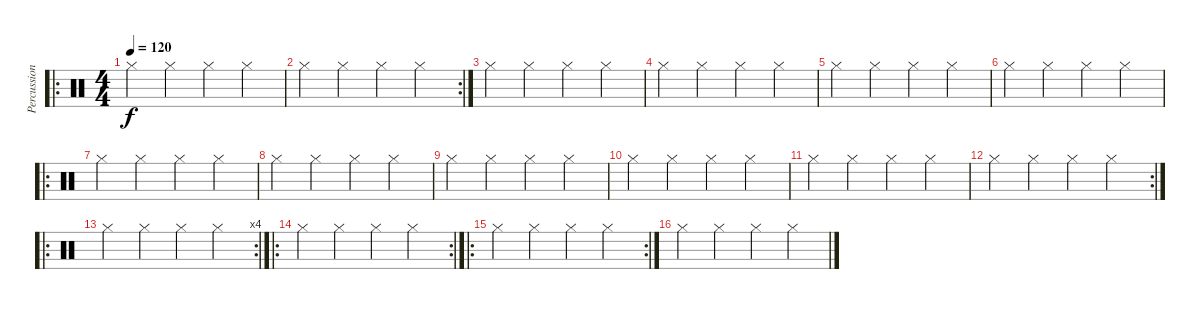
\track ("Percussioni" "Percussion") {instrument percussion}
\staff {score}
\articulation defaults
\ro
\ts (4 4)
\tempo 120
\clef neutral
\ks c "Hi-Hat (closed)".4{dy f} "Hi-Hat (closed)".4 "Hi-Hat (closed)".4 "Hi-Hat (closed)".4
|
\rc 2 "Hi-Hat (closed)".4 "Hi-Hat (closed)".4 "Hi-Hat (closed)".4 "Hi-Hat (closed)".4
|
"Hi-Hat (closed)".4 "Hi-Hat (closed)".4 "Hi-Hat (closed)".4 "Hi-Hat (closed)".4 |
"Hi-Hat (closed)".4 "Hi-Hat (closed)".4 "Hi-Hat (closed)".4 "Hi-Hat (closed)".4 |
"Hi-Hat (closed)".4 "Hi-Hat (closed)".4 "Hi-Hat (closed)".4 "Hi-Hat (closed)".4 |
"Hi-Hat (closed)".4 "Hi-Hat (closed)".4 "Hi-Hat (closed)".4 "Hi-Hat (closed)".4 |
\ro "Hi-Hat (closed)".4 "Hi-Hat (closed)".4 "Hi-Hat (closed)".4 "Hi-Hat (closed)".4
|
"Hi-Hat (closed)".4 "Hi-Hat (closed)".4 "Hi-Hat (closed)".4 "Hi-Hat (closed)".4 |
"Hi-Hat (closed)".4 "Hi-Hat (closed)".4 "Hi-Hat (closed)".4 "Hi-Hat (closed)".4 |
"Hi-Hat (closed)".4 "Hi-Hat (closed)".4 "Hi-Hat (closed)".4 "Hi-Hat (closed)".4 |
"Hi-Hat (closed)".4 "Hi-Hat (closed)".4 "Hi-Hat (closed)".4 "Hi-Hat (closed)".4 |
\rc 2 "Hi-Hat (closed)".4 "Hi-Hat (closed)".4 "Hi-Hat (closed)".4 "Hi-Hat (closed)".4
|
\ro
\rc 4 "Hi-Hat (closed)".4 "Hi-Hat (closed)".4 "Hi-Hat (closed)".4 "Hi-Hat (closed)".4
|
\ro
\rc 2 "Hi-Hat (closed)".4 "Hi-Hat (closed)".4 "Hi-Hat (closed)".4 "Hi-Hat (closed)".4
|
\ro
\rc 2 "Hi-Hat (closed)".4 "Hi-Hat (closed)".4 "Hi-Hat (closed)".4 "Hi-Hat (closed)".4
|
"Hi-Hat (closed)".4 "Hi-Hat (closed)".4 "Hi-Hat (closed)".4 "Hi-Hat (closed)".4
